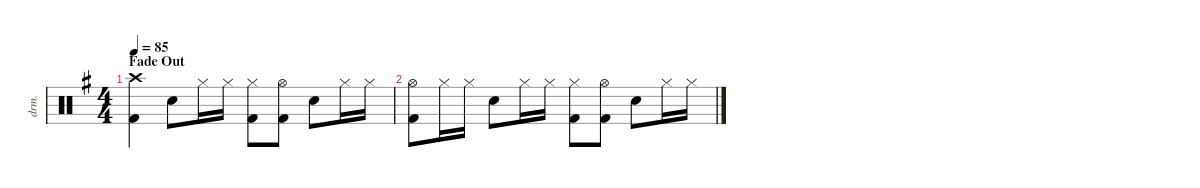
\defaultSystemsLayout 4
\hideDynamics
\bracketExtendMode nobrackets
\otherSystemsTrackNameOrientation horizontal
\track ("Drums" "drm.") {defaultSystemsLayout 4 instrument percussion}
\staff {score}
\articulation defaults
\ts (4 4)
\section ("" "Fade Out")
\tempo 85
\clef neutral
\ks g
("Crash high (hit)"{acc forcenatural} "Kick (hit) 2"{acc forcenatural}).4{dy f} "Snare (hit) 2"{acc forcenatural}.8 "Hi-Hat (closed)"{acc forcenatural}.16 "Hi-Hat (closed)"{acc forcenatural}.16 ("Hi-Hat (closed)"{acc forcenatural} "Kick (hit) 2"{acc forcenatural}).8 ("Hi-Hat (open)"{acc forcenatural} "Kick (hit) 2"{acc forcenatural}).8 "Snare (hit) 2"{acc forcenatural}.8 "Hi-Hat (closed)"{acc forcenatural}.16 "Hi-Hat (closed)"{acc forcenatural}.16 |
("Hi-Hat (open)"{acc forcenatural} "Kick (hit) 2"{acc forcenatural}).8 "Hi-Hat (closed)"{acc forcenatural}.16 "Hi-Hat (closed)"{acc forcenatural}.16 "Snare (hit) 2"{acc forcenatural}.8 "Hi-Hat (closed)"{acc forcenatural}.16 "Hi-Hat (closed)"{acc forcenatural}.16 ("Hi-Hat (closed)"{acc forcenatural} "Kick (hit) 2"{acc forcenatural}).8 ("Hi-Hat (open)"{acc forcenatural} "Kick (hit) 2"{acc forcenatural}).8 "Snare (hit) 2"{acc forcenatural}.8 "Hi-Hat (closed)"{acc forcenatural}.16 "Hi-Hat (closed)"{acc forcenatural}.16
